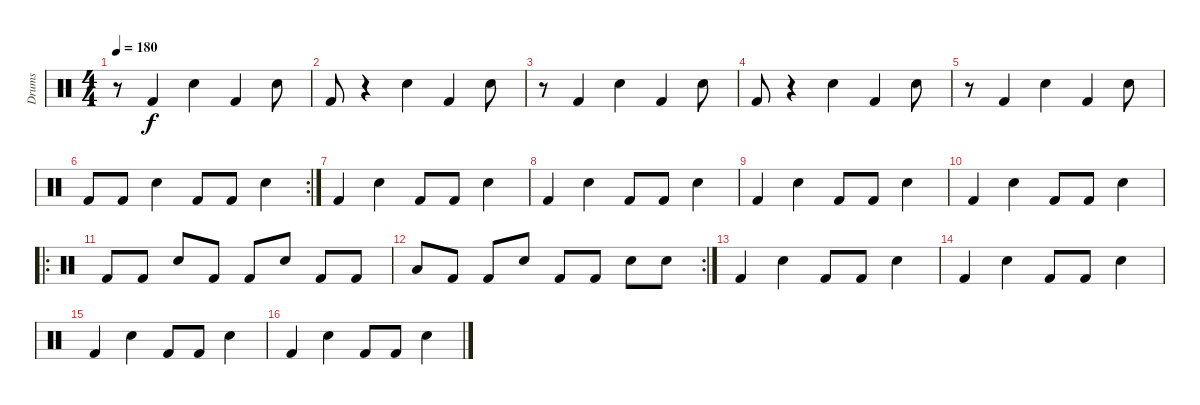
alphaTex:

\track ("Drums" "Drums") {instrument percussion}
\staff {score}
\articulation defaults
\ts (4 4)
\tempo 180
\clef neutral
\ks c
r.8{dy f} "Kick (hit) 2".4 "Snare (hit) 2".4 "Kick (hit) 2".4 "Snare (hit) 2".8 |
"Kick (hit) 2".8 r.4 "Snare (hit) 2".4 "Kick (hit) 2".4 "Snare (hit) 2".8 |
r.8 "Kick (hit) 2".4 "Snare (hit) 2".4 "Kick (hit) 2".4 "Snare (hit) 2".8 |
"Kick (hit) 2".8 r.4 "Snare (hit) 2".4 "Kick (hit) 2".4 "Snare (hit) 2".8 |
r.8 "Kick (hit) 2".4 "Snare (hit) 2".4 "Kick (hit) 2".4 "Snare (hit) 2".8 |
\rc 2 "Kick (hit) 2".8 "Kick (hit) 2".8 "Snare (hit) 2".4 "Kick (hit) 2".8 "Kick (hit) 2".8 "Snare (hit) 2".4
|
"Kick (hit) 2".4 "Snare (hit) 2".4 "Kick (hit) 2".8 "Kick (hit) 2".8 "Snare (hit) 2".4 |
"Kick (hit) 2".4 "Snare (hit) 2".4 "Kick (hit) 2".8 "Kick (hit) 2".8 "Snare (hit) 2".4 |
"Kick (hit) 2".4 "Snare (hit) 2".4 "Kick (hit) 2".8 "Kick (hit) 2".8 "Snare (hit) 2".4 |
"Kick (hit) 2".4 "Snare (hit) 2".4 "Kick (hit) 2".8 "Kick (hit) 2".8 "Snare (hit) 2".4 |
\ro "Kick (hit) 2".8 "Kick (hit) 2".8 "Snare (hit) 2".8 "Kick (hit) 2".8 "Kick (hit) 2".8 "Electric Snare (hit)".8 "Kick (hit) 2".8 "Kick (hit) 2".8
|
\rc 2 "Low Floor Tom (hit)".8 "Kick (hit) 2".8 "Kick (hit) 2".8 "Snare (hit) 2".8 "Kick (hit) 2".8 "Kick (hit) 2".8 "Snare (hit) 2".8 "Snare (hit) 2".8
|
"Kick (hit) 2".4 "Snare (hit) 2".4 "Kick (hit) 2".8 "Kick (hit) 2".8 "Snare (hit) 2".4 |
"Kick (hit) 2".4 "Snare (hit) 2".4 "Kick (hit) 2".8 "Kick (hit) 2".8 "Snare (hit) 2".4 |
"Kick (hit) 2".4 "Snare (hit) 2".4 "Kick (hit) 2".8 "Kick (hit) 2".8 "Snare (hit) 2".4 |
"Kick (hit) 2".4 "Snare (hit) 2".4 "Kick (hit) 2".8 "Kick (hit) 2".8 "Snare (hit) 2".4
